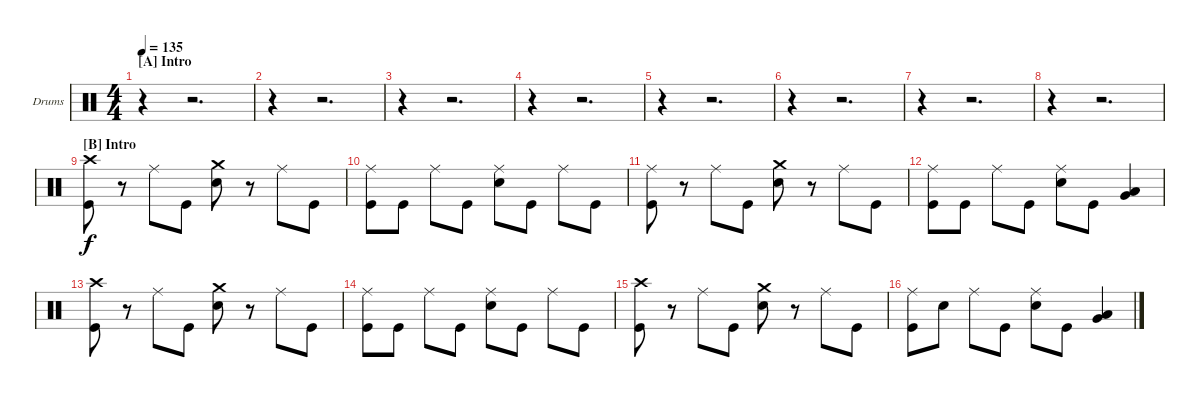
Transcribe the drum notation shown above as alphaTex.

\defaultSystemsLayout 4
\bracketExtendMode groupsimilarinstruments
\firstSystemTrackNameOrientation horizontal
\otherSystemsTrackNameOrientation horizontal
\track ("Drumkit" "Drums") {instrument percussion}
\staff {score}
\articulation defaults
\ts (4 4)
\section ("A" "Intro")
\tempo 135
\clef neutral
\scale
0.641509
\ks c
r.4{dy f} r.2{d} |
\scale
0.358491 r.4 r.2{d} |
\scale
0.5 r.4 r.2{d} |
\scale
0.5 r.4 r.2{d} |
\scale
0.5 r.4 r.2{d} |
\scale
0.5 r.4 r.2{d} |
\scale
0.5 r.4 r.2{d} |
\scale
0.5 r.4 r.2{d} |
\section ("B" "Intro")
\scale
0.5 ("Crash high (hit)" "Kick (hit)").8 r.8 "Ride (middle)".8 "Kick (hit)".8 ("Crash medium (hit)" "Snare (hit) 2").8 r.8 "Ride (middle)".8 "Kick (hit)".8 |
\scale
0.5 ("Ride (middle)" "Kick (hit)").8 "Kick (hit)".8 "Ride (middle)".8 "Kick (hit)".8 ("Ride (middle)" "Snare (hit) 2").8 "Kick (hit)".8 "Ride (middle)".8 "Kick (hit)".8 |
\scale
0.5 ("Ride (middle)" "Kick (hit)").8 r.8 "Ride (middle)".8 "Kick (hit)".8 ("Crash medium (hit)" "Snare (hit) 2").8 r.8 "Ride (middle)".8 "Kick (hit)".8 |
\scale
0.5 ("Ride (middle)" "Kick (hit)").8 "Kick (hit)".8 "Ride (middle)".8 "Kick (hit)".8 ("Ride (middle)" "Snare (hit) 2").8 "Kick (hit)".8 ("Low Tom (hit)" "Very Low Tom (hit)").4 |
\scale
0.5 ("Crash high (hit)" "Kick (hit)").8 r.8 "Ride (middle)".8 "Kick (hit)".8 ("Crash medium (hit)" "Snare (hit) 2").8 r.8 "Ride (middle)".8 "Kick (hit)".8 |
\scale
0.5 ("Ride (middle)" "Kick (hit)").8 "Kick (hit)".8 "Ride (middle)".8 "Kick (hit)".8 ("Ride (middle)" "Snare (hit) 2").8 "Kick (hit)".8 "Ride (middle)".8 "Kick (hit)".8 |
\scale
0.5 ("Crash high (hit)" "Kick (hit)").8 r.8 "Ride (middle)".8 "Kick (hit)".8 ("Crash medium (hit)" "Snare (hit) 2").8 r.8 "Ride (middle)".8 "Kick (hit)".8 |
\scale
0.5 ("Ride (middle)" "Kick (hit)").8 "Snare (hit) 2".8 "Ride (middle)".8 "Kick (hit)".8 ("Ride (middle)" "Snare (hit) 2").8 "Kick (hit)".8 ("Low Tom (hit)" "Very Low Tom (hit)").4
